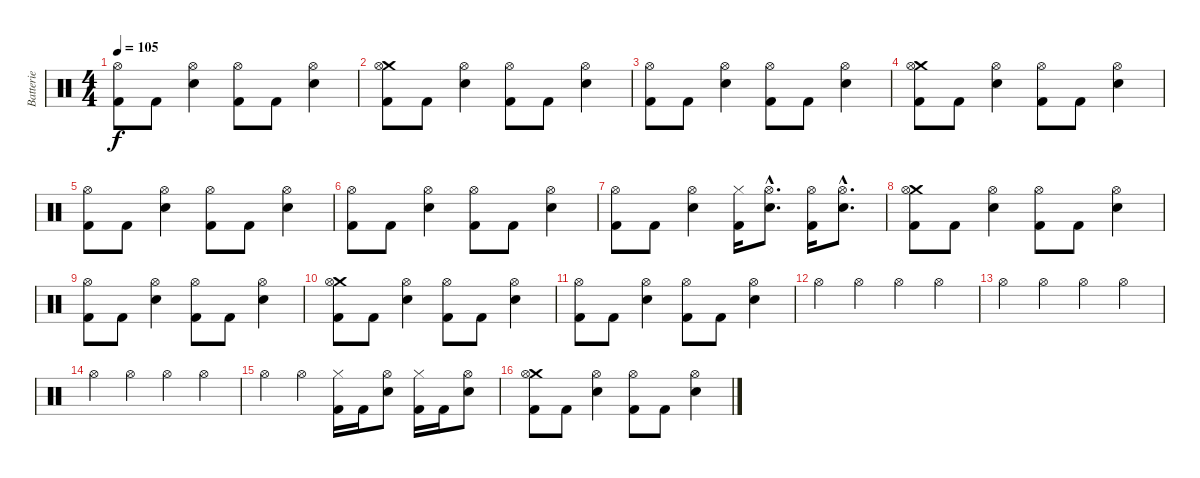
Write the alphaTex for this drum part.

\track ("Batterie" "Batterie") {instrument percussion}
\staff {score}
\articulation defaults
\ts (4 4)
\tempo 105
\clef neutral
\ks c
("Kick (hit) 2" "Hi-Hat (open)").8{dy f} "Kick (hit) 2".8 ("Electric Snare (hit)" "Hi-Hat (open)").4 ("Kick (hit) 2" "Hi-Hat (open)").8 "Kick (hit) 2".8 ("Electric Snare (hit)" "Hi-Hat (open)").4 |
("Kick (hit) 2" "Crash medium (hit)" "Hi-Hat (open)").8 "Kick (hit) 2".8 ("Electric Snare (hit)" "Hi-Hat (open)").4 ("Kick (hit) 2" "Hi-Hat (open)").8 "Kick (hit) 2".8 ("Electric Snare (hit)" "Hi-Hat (open)").4 |
("Kick (hit) 2" "Hi-Hat (open)").8 "Kick (hit) 2".8 ("Electric Snare (hit)" "Hi-Hat (open)").4 ("Kick (hit) 2" "Hi-Hat (open)").8 "Kick (hit) 2".8 ("Electric Snare (hit)" "Hi-Hat (open)").4 |
("Kick (hit) 2" "Crash medium (hit)" "Hi-Hat (open)").8 "Kick (hit) 2".8 ("Electric Snare (hit)" "Hi-Hat (open)").4 ("Kick (hit) 2" "Hi-Hat (open)").8 "Kick (hit) 2".8 ("Electric Snare (hit)" "Hi-Hat (open)").4 |
("Kick (hit) 2" "Hi-Hat (open)").8 "Kick (hit) 2".8 ("Electric Snare (hit)" "Hi-Hat (open)").4 ("Kick (hit) 2" "Hi-Hat (open)").8 "Kick (hit) 2".8 ("Electric Snare (hit)" "Hi-Hat (open)").4 |
("Kick (hit) 2" "Hi-Hat (open)").8 "Kick (hit) 2".8 ("Electric Snare (hit)" "Hi-Hat (open)").4 ("Kick (hit) 2" "Hi-Hat (open)").8 "Kick (hit) 2".8 ("Electric Snare (hit)" "Hi-Hat (open)").4 |
("Kick (hit) 2" "Hi-Hat (open)").8 "Kick (hit) 2".8 ("Electric Snare (hit)" "Hi-Hat (open)").4 ("Kick (hit) 2" "Hi-Hat (closed)").16 ("Electric Snare (hit)"{hac} "Hi-Hat (open)"{hac}).8{d} ("Kick (hit) 2" "Hi-Hat (open)").16 ("Electric Snare (hit)"{hac} "Hi-Hat (open)"{hac}).8{d} |
("Kick (hit) 2" "Crash medium (hit)" "Hi-Hat (open)").8 "Kick (hit) 2".8 ("Electric Snare (hit)" "Hi-Hat (open)").4 ("Kick (hit) 2" "Hi-Hat (open)").8 "Kick (hit) 2".8 ("Electric Snare (hit)" "Hi-Hat (open)").4 |
("Kick (hit) 2" "Hi-Hat (open)").8 "Kick (hit) 2".8 ("Electric Snare (hit)" "Hi-Hat (open)").4 ("Kick (hit) 2" "Hi-Hat (open)").8 "Kick (hit) 2".8 ("Electric Snare (hit)" "Hi-Hat (open)").4 |
("Kick (hit) 2" "Crash medium (hit)" "Hi-Hat (open)").8 "Kick (hit) 2".8 ("Electric Snare (hit)" "Hi-Hat (open)").4 ("Kick (hit) 2" "Hi-Hat (open)").8 "Kick (hit) 2".8 ("Electric Snare (hit)" "Hi-Hat (open)").4 |
("Kick (hit) 2" "Hi-Hat (open)").8 "Kick (hit) 2".8 ("Electric Snare (hit)" "Hi-Hat (open)").4 ("Kick (hit) 2" "Hi-Hat (open)").8 "Kick (hit) 2".8 ("Electric Snare (hit)" "Hi-Hat (open)").4 |
"Hi-Hat (open)".4 "Hi-Hat (open)".4 "Hi-Hat (open)".4 "Hi-Hat (open)".4 |
"Hi-Hat (open)".4 "Hi-Hat (open)".4 "Hi-Hat (open)".4 "Hi-Hat (open)".4 |
"Hi-Hat (open)".4 "Hi-Hat (open)".4 "Hi-Hat (open)".4 "Hi-Hat (open)".4 |
"Hi-Hat (open)".4 "Hi-Hat (open)".4 ("Kick (hit) 2" "Hi-Hat (closed)").16 "Kick (hit) 2".16 ("Electric Snare (hit)" "Hi-Hat (open)").8 ("Kick (hit) 2" "Hi-Hat (closed)").16 "Kick (hit) 2".16 ("Electric Snare (hit)" "Hi-Hat (open)").8 |
("Kick (hit) 2" "Crash medium (hit)" "Hi-Hat (open)").8 "Kick (hit) 2".8 ("Electric Snare (hit)" "Hi-Hat (open)").4 ("Kick (hit) 2" "Hi-Hat (open)").8 "Kick (hit) 2".8 ("Electric Snare (hit)" "Hi-Hat (open)").4
